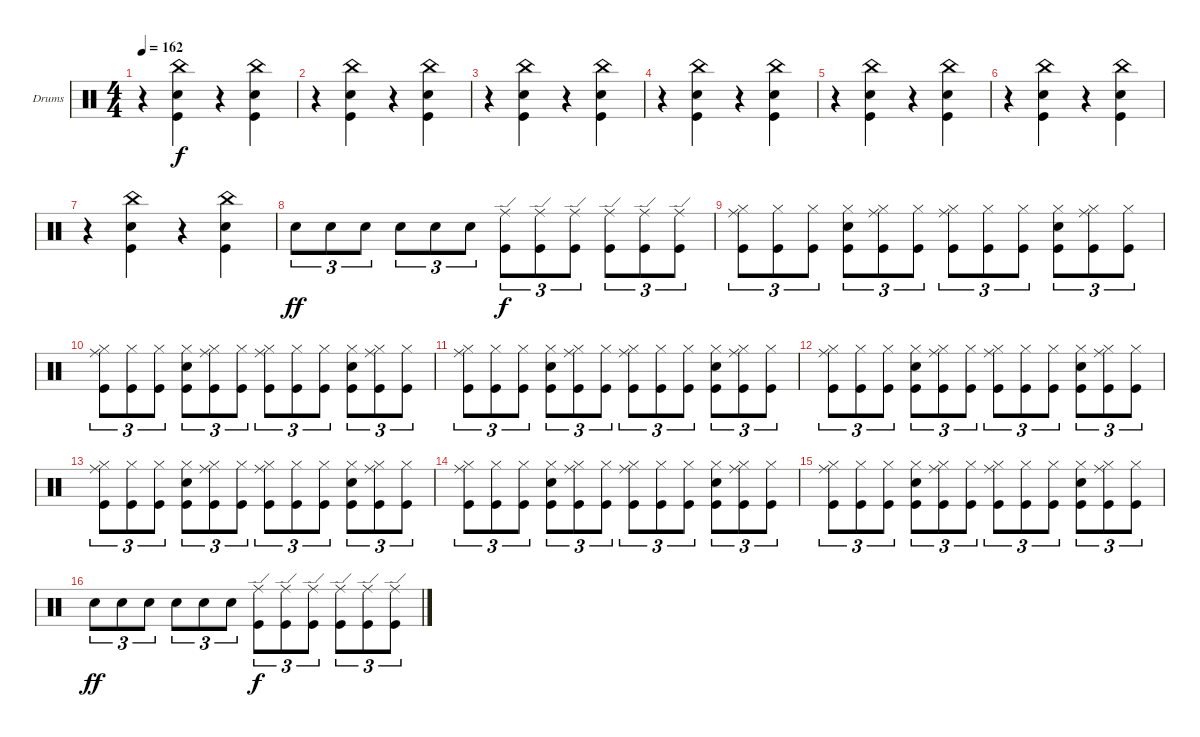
\bracketExtendMode groupsimilarinstruments
\firstSystemTrackNameOrientation horizontal
\otherSystemsTrackNameOrientation horizontal
\track ("Drumkit" "Drums") {instrument percussion}
\staff {score}
\articulation defaults
\ts (4 4)
\tempo 162
\clef neutral
\ks c
r.4{dy f} ("Kick (hit)" "Snare (hit) 2" "China (hit)").4 r.4 ("Kick (hit)" "Snare (hit) 2" "China (hit)").4 |
r.4 ("Kick (hit)" "Snare (hit) 2" "China (hit)").4 r.4 ("Kick (hit)" "Snare (hit) 2" "China (hit)").4 |
r.4 ("Kick (hit)" "Snare (hit) 2" "China (hit)").4 r.4 ("Kick (hit)" "Snare (hit) 2" "China (hit)").4 |
r.4 ("Kick (hit)" "Snare (hit) 2" "China (hit)").4 r.4 ("Kick (hit)" "Snare (hit) 2" "China (hit)").4 |
r.4 ("Kick (hit)" "Snare (hit) 2" "China (hit)").4 r.4 ("Kick (hit)" "Snare (hit) 2" "China (hit)").4 |
r.4 ("Kick (hit)" "Snare (hit) 2" "China (hit)").4 r.4 ("Kick (hit)" "Snare (hit) 2" "China (hit)").4 |
r.4 ("Kick (hit)" "Snare (hit) 2" "China (hit)").4 r.4 ("Kick (hit)" "Snare (hit) 2" "China (hit)").4 |
"Snare (hit) 2".8{tu (3 2) dy ff} "Snare (hit) 2".8{tu (3 2)} "Snare (hit) 2".8{tu (3 2)} "Snare (hit) 2".8{tu (3 2)} "Snare (hit) 2".8{tu (3 2)} "Snare (hit) 2".8{tu (3 2)} ("Kick (hit)" "Ride (edge)").8{tu (3 2) dy f} ("Kick (hit)" "Ride (edge)").8{tu (3 2)} ("Kick (hit)" "Ride (edge)").8{tu (3 2)} ("Kick (hit)" "Ride (edge)").8{tu (3 2)} ("Kick (hit)" "Ride (edge)").8{tu (3 2)} ("Kick (hit)" "Ride (edge)").8{tu (3 2)} |
("Kick (hit)" "Ride (middle)" "Hi-Hat (closed)").8{tu (3 2)} ("Kick (hit)" "Hi-Hat (closed)").8{tu (3 2)} ("Kick (hit)" "Hi-Hat (closed)").8{tu (3 2)} ("Kick (hit)" "Snare (hit) 2" "Hi-Hat (closed)").8{tu (3 2)} ("Kick (hit)" "Ride (middle)" "Hi-Hat (closed)").8{tu (3 2)} ("Kick (hit)" "Hi-Hat (closed)").8{tu (3 2)} ("Kick (hit)" "Ride (middle)" "Hi-Hat (closed)").8{tu (3 2)} ("Kick (hit)" "Hi-Hat (closed)").8{tu (3 2)} ("Kick (hit)" "Hi-Hat (closed)").8{tu (3 2)} ("Kick (hit)" "Snare (hit) 2" "Hi-Hat (closed)").8{tu (3 2)} ("Kick (hit)" "Ride (middle)" "Hi-Hat (closed)").8{tu (3 2)} ("Kick (hit)" "Hi-Hat (closed)").8{tu (3 2)} |
("Kick (hit)" "Ride (middle)" "Hi-Hat (closed)").8{tu (3 2)} ("Kick (hit)" "Hi-Hat (closed)").8{tu (3 2)} ("Kick (hit)" "Hi-Hat (closed)").8{tu (3 2)} ("Kick (hit)" "Snare (hit) 2" "Hi-Hat (closed)").8{tu (3 2)} ("Kick (hit)" "Ride (middle)" "Hi-Hat (closed)").8{tu (3 2)} ("Kick (hit)" "Hi-Hat (closed)").8{tu (3 2)} ("Kick (hit)" "Ride (middle)" "Hi-Hat (closed)").8{tu (3 2)} ("Kick (hit)" "Hi-Hat (closed)").8{tu (3 2)} ("Kick (hit)" "Hi-Hat (closed)").8{tu (3 2)} ("Kick (hit)" "Snare (hit) 2" "Hi-Hat (closed)").8{tu (3 2)} ("Kick (hit)" "Ride (middle)" "Hi-Hat (closed)").8{tu (3 2)} ("Kick (hit)" "Hi-Hat (closed)").8{tu (3 2)} |
("Kick (hit)" "Ride (middle)" "Hi-Hat (closed)").8{tu (3 2)} ("Kick (hit)" "Hi-Hat (closed)").8{tu (3 2)} ("Kick (hit)" "Hi-Hat (closed)").8{tu (3 2)} ("Kick (hit)" "Snare (hit) 2" "Hi-Hat (closed)").8{tu (3 2)} ("Kick (hit)" "Ride (middle)" "Hi-Hat (closed)").8{tu (3 2)} ("Kick (hit)" "Hi-Hat (closed)").8{tu (3 2)} ("Kick (hit)" "Ride (middle)" "Hi-Hat (closed)").8{tu (3 2)} ("Kick (hit)" "Hi-Hat (closed)").8{tu (3 2)} ("Kick (hit)" "Hi-Hat (closed)").8{tu (3 2)} ("Kick (hit)" "Snare (hit) 2" "Hi-Hat (closed)").8{tu (3 2)} ("Kick (hit)" "Ride (middle)" "Hi-Hat (closed)").8{tu (3 2)} ("Kick (hit)" "Hi-Hat (closed)").8{tu (3 2)} |
("Kick (hit)" "Ride (middle)" "Hi-Hat (closed)").8{tu (3 2)} ("Kick (hit)" "Hi-Hat (closed)").8{tu (3 2)} ("Kick (hit)" "Hi-Hat (closed)").8{tu (3 2)} ("Kick (hit)" "Snare (hit) 2" "Hi-Hat (closed)").8{tu (3 2)} ("Kick (hit)" "Ride (middle)" "Hi-Hat (closed)").8{tu (3 2)} ("Kick (hit)" "Hi-Hat (closed)").8{tu (3 2)} ("Kick (hit)" "Ride (middle)" "Hi-Hat (closed)").8{tu (3 2)} ("Kick (hit)" "Hi-Hat (closed)").8{tu (3 2)} ("Kick (hit)" "Hi-Hat (closed)").8{tu (3 2)} ("Kick (hit)" "Snare (hit) 2" "Hi-Hat (closed)").8{tu (3 2)} ("Kick (hit)" "Ride (middle)" "Hi-Hat (closed)").8{tu (3 2)} ("Kick (hit)" "Hi-Hat (closed)").8{tu (3 2)} |
("Kick (hit)" "Ride (middle)" "Hi-Hat (closed)").8{tu (3 2)} ("Kick (hit)" "Hi-Hat (closed)").8{tu (3 2)} ("Kick (hit)" "Hi-Hat (closed)").8{tu (3 2)} ("Kick (hit)" "Snare (hit) 2" "Hi-Hat (closed)").8{tu (3 2)} ("Kick (hit)" "Ride (middle)" "Hi-Hat (closed)").8{tu (3 2)} ("Kick (hit)" "Hi-Hat (closed)").8{tu (3 2)} ("Kick (hit)" "Ride (middle)" "Hi-Hat (closed)").8{tu (3 2)} ("Kick (hit)" "Hi-Hat (closed)").8{tu (3 2)} ("Kick (hit)" "Hi-Hat (closed)").8{tu (3 2)} ("Kick (hit)" "Snare (hit) 2" "Hi-Hat (closed)").8{tu (3 2)} ("Kick (hit)" "Ride (middle)" "Hi-Hat (closed)").8{tu (3 2)} ("Kick (hit)" "Hi-Hat (closed)").8{tu (3 2)} |
("Kick (hit)" "Ride (middle)" "Hi-Hat (closed)").8{tu (3 2)} ("Kick (hit)" "Hi-Hat (closed)").8{tu (3 2)} ("Kick (hit)" "Hi-Hat (closed)").8{tu (3 2)} ("Kick (hit)" "Snare (hit) 2" "Hi-Hat (closed)").8{tu (3 2)} ("Kick (hit)" "Ride (middle)" "Hi-Hat (closed)").8{tu (3 2)} ("Kick (hit)" "Hi-Hat (closed)").8{tu (3 2)} ("Kick (hit)" "Ride (middle)" "Hi-Hat (closed)").8{tu (3 2)} ("Kick (hit)" "Hi-Hat (closed)").8{tu (3 2)} ("Kick (hit)" "Hi-Hat (closed)").8{tu (3 2)} ("Kick (hit)" "Snare (hit) 2" "Hi-Hat (closed)").8{tu (3 2)} ("Kick (hit)" "Ride (middle)" "Hi-Hat (closed)").8{tu (3 2)} ("Kick (hit)" "Hi-Hat (closed)").8{tu (3 2)} |
("Kick (hit)" "Ride (middle)" "Hi-Hat (closed)").8{tu (3 2)} ("Kick (hit)" "Hi-Hat (closed)").8{tu (3 2)} ("Kick (hit)" "Hi-Hat (closed)").8{tu (3 2)} ("Kick (hit)" "Snare (hit) 2" "Hi-Hat (closed)").8{tu (3 2)} ("Kick (hit)" "Ride (middle)" "Hi-Hat (closed)").8{tu (3 2)} ("Kick (hit)" "Hi-Hat (closed)").8{tu (3 2)} ("Kick (hit)" "Ride (middle)" "Hi-Hat (closed)").8{tu (3 2)} ("Kick (hit)" "Hi-Hat (closed)").8{tu (3 2)} ("Kick (hit)" "Hi-Hat (closed)").8{tu (3 2)} ("Kick (hit)" "Snare (hit) 2" "Hi-Hat (closed)").8{tu (3 2)} ("Kick (hit)" "Ride (middle)" "Hi-Hat (closed)").8{tu (3 2)} ("Kick (hit)" "Hi-Hat (closed)").8{tu (3 2)} |
"Snare (hit) 2".8{tu (3 2) dy ff} "Snare (hit) 2".8{tu (3 2)} "Snare (hit) 2".8{tu (3 2)} "Snare (hit) 2".8{tu (3 2)} "Snare (hit) 2".8{tu (3 2)} "Snare (hit) 2".8{tu (3 2)} ("Kick (hit)" "Ride (edge)").8{tu (3 2) dy f} ("Kick (hit)" "Ride (edge)").8{tu (3 2)} ("Kick (hit)" "Ride (edge)").8{tu (3 2)} ("Kick (hit)" "Ride (edge)").8{tu (3 2)} ("Kick (hit)" "Ride (edge)").8{tu (3 2)} ("Kick (hit)" "Ride (edge)").8{tu (3 2)}
